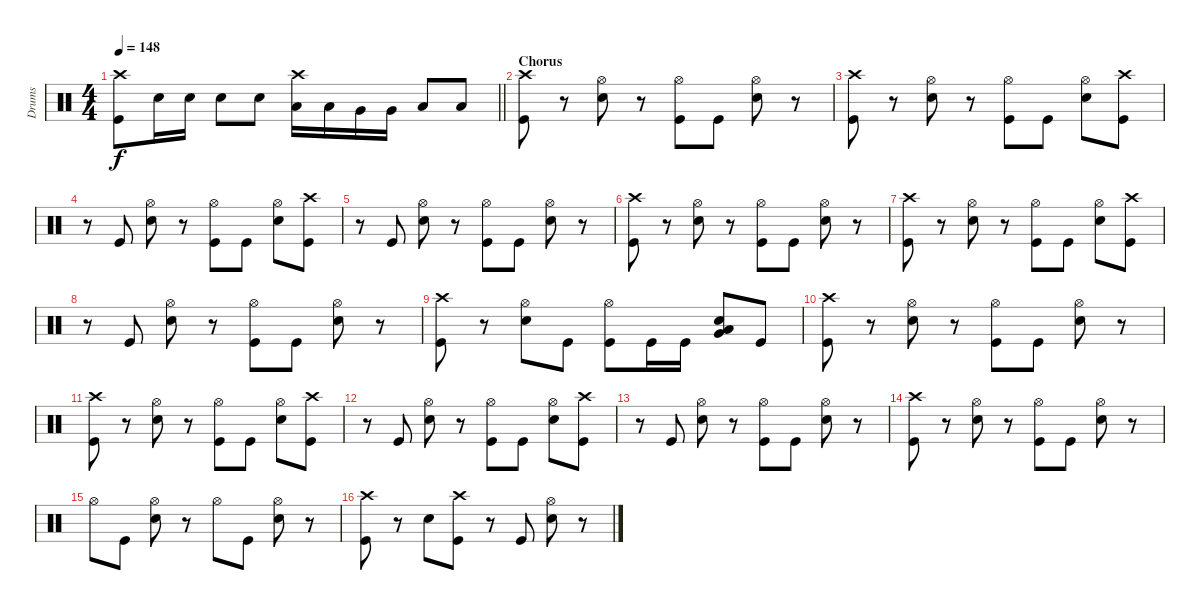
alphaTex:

\track ("Drums" "Drums") {instrument percussion}
\staff {score}
\articulation defaults
\ts (4 4)
\tempo 148
\clef neutral
\barLineRight lightlight
\ks c
("Kick (hit)" "Crash high (hit)").8{dy f} "Snare (hit) 2".16 "Snare (hit) 2".16 "Snare (hit) 2".8 "Snare (hit) 2".8 ("Low Tom (hit)" "Crash high (hit)").16 "Low Tom (hit)".16 "Very Low Tom (hit)".16 "Very Low Tom (hit)".16 "Low Floor Tom (hit)".8 "Low Floor Tom (hit)".8 |
\section ("" "Chorus")
("Kick (hit)" "Crash high (hit)").8 r.8 ("Hi-Hat (open)" "Snare (hit) 2").8 r.8 ("Hi-Hat (open)" "Kick (hit)").8 "Kick (hit)".8 ("Hi-Hat (open)" "Snare (hit) 2").8 r.8 |
("Kick (hit)" "Crash high (hit)").8 r.8 ("Snare (hit) 2" "Hi-Hat (open)").8 r.8 ("Hi-Hat (open)" "Kick (hit)").8 "Kick (hit)".8 ("Hi-Hat (open)" "Snare (hit) 2").8 ("Kick (hit)" "Crash high (hit)").8 |
r.8 "Kick (hit)".8 ("Hi-Hat (open)" "Snare (hit) 2").8 r.8 ("Hi-Hat (open)" "Kick (hit)").8 "Kick (hit)".8 ("Hi-Hat (open)" "Snare (hit) 2").8 ("Kick (hit)" "Crash high (hit)").8 |
r.8 "Kick (hit)".8 ("Snare (hit) 2" "Hi-Hat (open)").8 r.8 ("Kick (hit)" "Hi-Hat (open)").8 "Kick (hit)".8 ("Snare (hit) 2" "Hi-Hat (open)").8 r.8 |
("Kick (hit)" "Crash high (hit)").8 r.8 ("Snare (hit) 2" "Hi-Hat (open)").8 r.8 ("Kick (hit)" "Hi-Hat (open)").8 "Kick (hit)".8 ("Snare (hit) 2" "Hi-Hat (open)").8 r.8 |
("Kick (hit)" "Crash high (hit)").8 r.8 ("Snare (hit) 2" "Hi-Hat (open)").8 r.8 ("Hi-Hat (open)" "Kick (hit)").8 "Kick (hit)".8 ("Hi-Hat (open)" "Snare (hit) 2").8 ("Kick (hit)" "Crash high (hit)").8 |
r.8 "Kick (hit)".8 ("Hi-Hat (open)" "Snare (hit) 2").8 r.8 ("Hi-Hat (open)" "Kick (hit)").8 "Kick (hit)".8 ("Hi-Hat (open)" "Snare (hit) 2").8 r.8 |
("Kick (hit)" "Crash high (hit)").8 r.8 ("Snare (hit) 2" "Hi-Hat (open)").8 "Kick (hit)".8 ("Kick (hit)" "Hi-Hat (open)").8 "Kick (hit)".16 "Kick (hit)".16 ("Snare (hit) 2" "Low Floor Tom (hit)" "Very Low Tom (hit)").8 "Kick (hit)".8 |
("Kick (hit)" "Crash high (hit)").8 r.8 ("Hi-Hat (open)" "Snare (hit) 2").8 r.8 ("Hi-Hat (open)" "Kick (hit)").8 "Kick (hit)".8 ("Hi-Hat (open)" "Snare (hit) 2").8 r.8 |
("Kick (hit)" "Crash high (hit)").8 r.8 ("Snare (hit) 2" "Hi-Hat (open)").8 r.8 ("Hi-Hat (open)" "Kick (hit)").8 "Kick (hit)".8 ("Hi-Hat (open)" "Snare (hit) 2").8 ("Kick (hit)" "Crash high (hit)").8 |
r.8 "Kick (hit)".8 ("Hi-Hat (open)" "Snare (hit) 2").8 r.8 ("Hi-Hat (open)" "Kick (hit)").8 "Kick (hit)".8 ("Hi-Hat (open)" "Snare (hit) 2").8 ("Kick (hit)" "Crash high (hit)").8 |
r.8 "Kick (hit)".8 ("Snare (hit) 2" "Hi-Hat (open)").8 r.8 ("Kick (hit)" "Hi-Hat (open)").8 "Kick (hit)".8 ("Snare (hit) 2" "Hi-Hat (open)").8 r.8 |
("Kick (hit)" "Crash high (hit)").8 r.8 ("Snare (hit) 2" "Hi-Hat (open)").8 r.8 ("Kick (hit)" "Hi-Hat (open)").8 "Kick (hit)".8 ("Snare (hit) 2" "Hi-Hat (open)").8 r.8 |
"Hi-Hat (open)".8 "Kick (hit)".8 ("Hi-Hat (open)" "Snare (hit) 2").8 r.8 "Hi-Hat (open)".8 "Kick (hit)".8 ("Hi-Hat (open)" "Snare (hit) 2").8 r.8 |
("Kick (hit)" "Crash high (hit)").8 r.8 "Snare (hit) 2".8 ("Kick (hit)" "Crash high (hit)").8 r.8 "Kick (hit)".8 ("Hi-Hat (open)" "Snare (hit) 2").8 r.8
